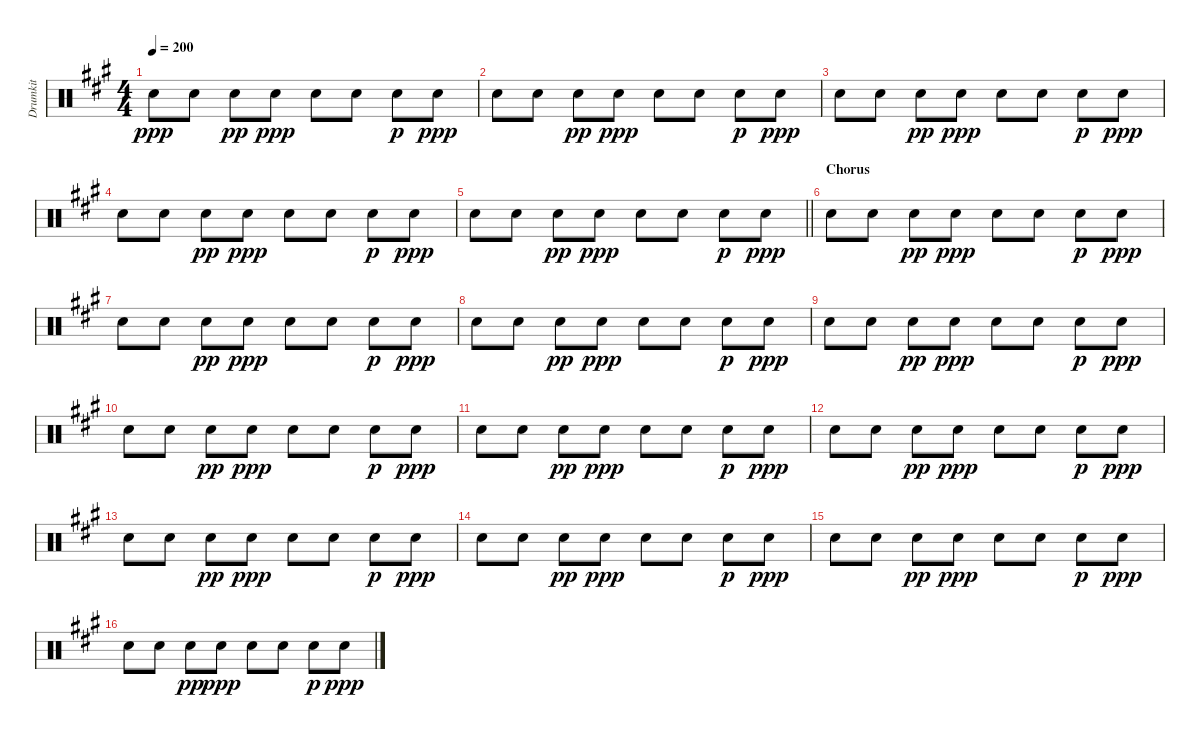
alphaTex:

\track ("Drumkit" "Drumkit") {instrument percussion}
\staff {score}
\articulation defaults
\ts (4 4)
\tempo 200
\clef neutral
\ks a "Snare (hit) 2".8{dy ppp} "Snare (hit) 2".8 "Snare (hit) 2".8{dy pp} "Snare (hit) 2".8{dy ppp} "Snare (hit) 2".8 "Snare (hit) 2".8 "Snare (hit) 2".8{dy p} "Snare (hit) 2".8{dy ppp}
|
"Snare (hit) 2".8 "Snare (hit) 2".8 "Snare (hit) 2".8{dy pp} "Snare (hit) 2".8{dy ppp} "Snare (hit) 2".8 "Snare (hit) 2".8 "Snare (hit) 2".8{dy p} "Snare (hit) 2".8{dy ppp} |
"Snare (hit) 2".8 "Snare (hit) 2".8 "Snare (hit) 2".8{dy pp} "Snare (hit) 2".8{dy ppp} "Snare (hit) 2".8 "Snare (hit) 2".8 "Snare (hit) 2".8{dy p} "Snare (hit) 2".8{dy ppp} |
"Snare (hit) 2".8 "Snare (hit) 2".8 "Snare (hit) 2".8{dy pp} "Snare (hit) 2".8{dy ppp} "Snare (hit) 2".8 "Snare (hit) 2".8 "Snare (hit) 2".8{dy p} "Snare (hit) 2".8{dy ppp} |
\barLineRight lightlight "Snare (hit) 2".8 "Snare (hit) 2".8 "Snare (hit) 2".8{dy pp} "Snare (hit) 2".8{dy ppp} "Snare (hit) 2".8 "Snare (hit) 2".8 "Snare (hit) 2".8{dy p} "Snare (hit) 2".8{dy ppp}
|
\section ("" "Chorus")
"Snare (hit) 2".8 "Snare (hit) 2".8 "Snare (hit) 2".8{dy pp} "Snare (hit) 2".8{dy ppp} "Snare (hit) 2".8 "Snare (hit) 2".8 "Snare (hit) 2".8{dy p} "Snare (hit) 2".8{dy ppp} |
"Snare (hit) 2".8 "Snare (hit) 2".8 "Snare (hit) 2".8{dy pp} "Snare (hit) 2".8{dy ppp} "Snare (hit) 2".8 "Snare (hit) 2".8 "Snare (hit) 2".8{dy p} "Snare (hit) 2".8{dy ppp} |
"Snare (hit) 2".8 "Snare (hit) 2".8 "Snare (hit) 2".8{dy pp} "Snare (hit) 2".8{dy ppp} "Snare (hit) 2".8 "Snare (hit) 2".8 "Snare (hit) 2".8{dy p} "Snare (hit) 2".8{dy ppp} |
"Snare (hit) 2".8 "Snare (hit) 2".8 "Snare (hit) 2".8{dy pp} "Snare (hit) 2".8{dy ppp} "Snare (hit) 2".8 "Snare (hit) 2".8 "Snare (hit) 2".8{dy p} "Snare (hit) 2".8{dy ppp} |
"Snare (hit) 2".8 "Snare (hit) 2".8 "Snare (hit) 2".8{dy pp} "Snare (hit) 2".8{dy ppp} "Snare (hit) 2".8 "Snare (hit) 2".8 "Snare (hit) 2".8{dy p} "Snare (hit) 2".8{dy ppp} |
"Snare (hit) 2".8 "Snare (hit) 2".8 "Snare (hit) 2".8{dy pp} "Snare (hit) 2".8{dy ppp} "Snare (hit) 2".8 "Snare (hit) 2".8 "Snare (hit) 2".8{dy p} "Snare (hit) 2".8{dy ppp} |
"Snare (hit) 2".8 "Snare (hit) 2".8 "Snare (hit) 2".8{dy pp} "Snare (hit) 2".8{dy ppp} "Snare (hit) 2".8 "Snare (hit) 2".8 "Snare (hit) 2".8{dy p} "Snare (hit) 2".8{dy ppp} |
"Snare (hit) 2".8 "Snare (hit) 2".8 "Snare (hit) 2".8{dy pp} "Snare (hit) 2".8{dy ppp} "Snare (hit) 2".8 "Snare (hit) 2".8 "Snare (hit) 2".8{dy p} "Snare (hit) 2".8{dy ppp} |
"Snare (hit) 2".8 "Snare (hit) 2".8 "Snare (hit) 2".8{dy pp} "Snare (hit) 2".8{dy ppp} "Snare (hit) 2".8 "Snare (hit) 2".8 "Snare (hit) 2".8{dy p} "Snare (hit) 2".8{dy ppp} |
"Snare (hit) 2".8 "Snare (hit) 2".8 "Snare (hit) 2".8{dy pp} "Snare (hit) 2".8{dy ppp} "Snare (hit) 2".8 "Snare (hit) 2".8 "Snare (hit) 2".8{dy p} "Snare (hit) 2".8{dy ppp} |
"Snare (hit) 2".8 "Snare (hit) 2".8 "Snare (hit) 2".8{dy pp} "Snare (hit) 2".8{dy ppp} "Snare (hit) 2".8 "Snare (hit) 2".8 "Snare (hit) 2".8{dy p} "Snare (hit) 2".8{dy ppp}
